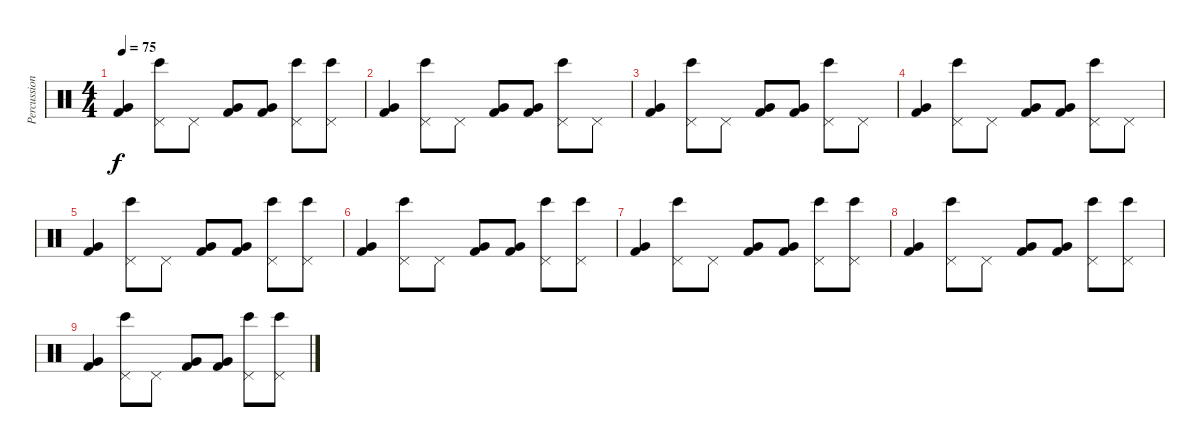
\track ("Percussion" "Percussion") {instrument percussion}
\staff {score}
\articulation defaults
\ts (4 4)
\tempo 75
\clef neutral
\ks c
("Very Low Tom (hit)" "Kick (hit) 2").4{dy f} ("Pedal Hi-Hat (hit)" "Bongo High (hit)").8 "Pedal Hi-Hat (hit)".8 ("Very Low Tom (hit)" "Kick (hit) 2").8 ("Very Low Tom (hit)" "Kick (hit) 2").8 ("Pedal Hi-Hat (hit)" "Bongo High (hit)").8 ("Pedal Hi-Hat (hit)" "Bongo High (hit)").8 |
("Very Low Tom (hit)" "Kick (hit) 2").4 ("Pedal Hi-Hat (hit)" "Bongo High (hit)").8 "Pedal Hi-Hat (hit)".8 ("Very Low Tom (hit)" "Kick (hit) 2").8 ("Very Low Tom (hit)" "Kick (hit) 2").8 ("Pedal Hi-Hat (hit)" "Bongo High (hit)").8 "Pedal Hi-Hat (hit)".8 |
("Very Low Tom (hit)" "Kick (hit) 2").4 ("Pedal Hi-Hat (hit)" "Bongo High (hit)").8 "Pedal Hi-Hat (hit)".8 ("Very Low Tom (hit)" "Kick (hit) 2").8 ("Very Low Tom (hit)" "Kick (hit) 2").8 ("Pedal Hi-Hat (hit)" "Bongo High (hit)").8 "Pedal Hi-Hat (hit)".8 |
("Very Low Tom (hit)" "Kick (hit) 2").4 ("Pedal Hi-Hat (hit)" "Bongo High (hit)").8 "Pedal Hi-Hat (hit)".8 ("Very Low Tom (hit)" "Kick (hit) 2").8 ("Very Low Tom (hit)" "Kick (hit) 2").8 ("Pedal Hi-Hat (hit)" "Bongo High (hit)").8 "Pedal Hi-Hat (hit)".8 |
("Very Low Tom (hit)" "Kick (hit) 2").4 ("Pedal Hi-Hat (hit)" "Bongo High (hit)").8 "Pedal Hi-Hat (hit)".8 ("Very Low Tom (hit)" "Kick (hit) 2").8 ("Very Low Tom (hit)" "Kick (hit) 2").8 ("Pedal Hi-Hat (hit)" "Bongo High (hit)").8 ("Pedal Hi-Hat (hit)" "Bongo High (hit)").8 |
("Very Low Tom (hit)" "Kick (hit) 2").4{volume 13} ("Pedal Hi-Hat (hit)" "Bongo High (hit)").8 "Pedal Hi-Hat (hit)".8 ("Very Low Tom (hit)" "Kick (hit) 2").8{volume 12} ("Very Low Tom (hit)" "Kick (hit) 2").8 ("Pedal Hi-Hat (hit)" "Bongo High (hit)").8 ("Pedal Hi-Hat (hit)" "Bongo High (hit)").8 |
("Very Low Tom (hit)" "Kick (hit) 2").4{volume 10} ("Pedal Hi-Hat (hit)" "Bongo High (hit)").8 "Pedal Hi-Hat (hit)".8 ("Very Low Tom (hit)" "Kick (hit) 2").8 ("Very Low Tom (hit)" "Kick (hit) 2").8 ("Pedal Hi-Hat (hit)" "Bongo High (hit)").8 ("Pedal Hi-Hat (hit)" "Bongo High (hit)").8 |
("Very Low Tom (hit)" "Kick (hit) 2").4{volume 8} ("Pedal Hi-Hat (hit)" "Bongo High (hit)").8 "Pedal Hi-Hat (hit)".8 ("Very Low Tom (hit)" "Kick (hit) 2").8{volume 7} ("Very Low Tom (hit)" "Kick (hit) 2").8 ("Pedal Hi-Hat (hit)" "Bongo High (hit)").8 ("Pedal Hi-Hat (hit)" "Bongo High (hit)").8 |
("Very Low Tom (hit)" "Kick (hit) 2").4{volume 5} ("Pedal Hi-Hat (hit)" "Bongo High (hit)").8 "Pedal Hi-Hat (hit)".8 ("Very Low Tom (hit)" "Kick (hit) 2").8{volume 3} ("Very Low Tom (hit)" "Kick (hit) 2").8 ("Pedal Hi-Hat (hit)" "Bongo High (hit)").8 ("Pedal Hi-Hat (hit)" "Bongo High (hit)").8
